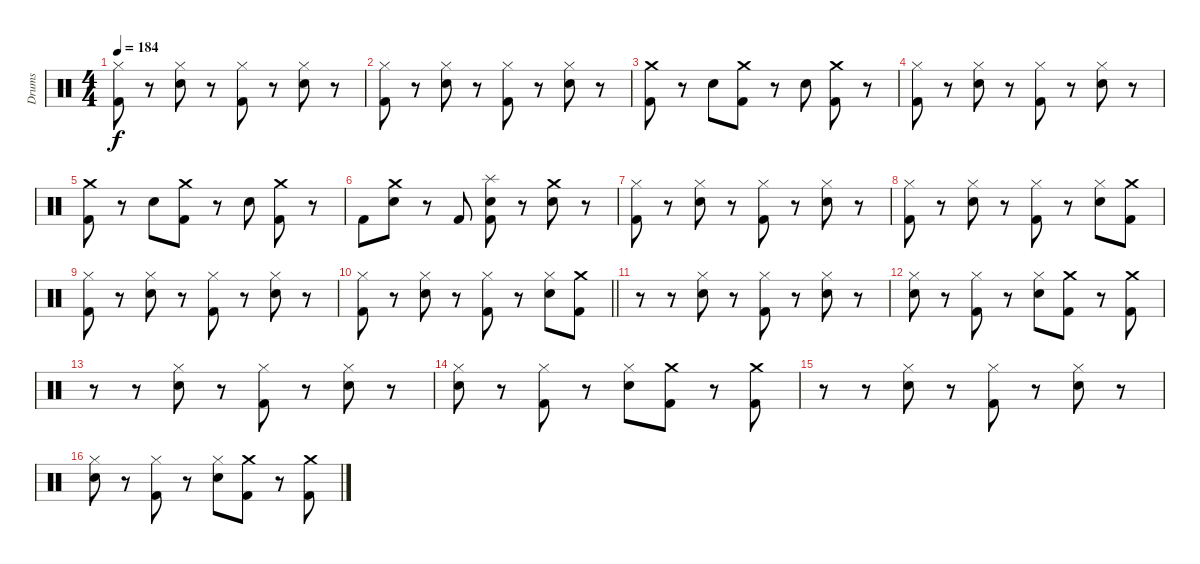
\track ("Drums" "Drums") {instrument percussion}
\staff {score}
\articulation defaults
\ts (4 4)
\tempo 184
\clef neutral
\ks c
("Hi-Hat (closed)" "Kick (hit) 2").8{dy f} r.8 ("Hi-Hat (closed)" "Snare (hit) 2").8 r.8 ("Hi-Hat (closed)" "Kick (hit) 2").8 r.8 ("Hi-Hat (closed)" "Snare (hit) 2").8 r.8 |
("Hi-Hat (closed)" "Kick (hit) 2").8 r.8 ("Hi-Hat (closed)" "Snare (hit) 2").8 r.8 ("Hi-Hat (closed)" "Kick (hit) 2").8 r.8 ("Hi-Hat (closed)" "Snare (hit) 2").8 r.8 |
("Crash medium (hit)" "Kick (hit) 2").8 r.8 "Snare (hit) 2".8 ("Crash medium (hit)" "Kick (hit) 2").8 r.8 "Snare (hit) 2".8 ("Crash medium (hit)" "Kick (hit) 2").8 r.8 |
("Hi-Hat (closed)" "Kick (hit) 2").8 r.8 ("Hi-Hat (closed)" "Snare (hit) 2").8 r.8 ("Hi-Hat (closed)" "Kick (hit) 2").8 r.8 ("Hi-Hat (closed)" "Snare (hit) 2").8 r.8 |
("Crash medium (hit)" "Kick (hit) 2").8 r.8 "Snare (hit) 2".8 ("Crash medium (hit)" "Kick (hit) 2").8 r.8 "Snare (hit) 2".8 ("Crash medium (hit)" "Kick (hit) 2").8 r.8 |
"Kick (hit) 2".8 ("Crash medium (hit)" "Snare (hit) 2").8 r.8 "Kick (hit) 2".8 ("Splash (hit)" "Snare (hit) 2" "Kick (hit) 2").8 r.8 ("Crash medium (hit)" "Snare (hit) 2").8 r.8 |
("Hi-Hat (closed)" "Kick (hit) 2").8 r.8 ("Hi-Hat (closed)" "Snare (hit) 2").8 r.8 ("Hi-Hat (closed)" "Kick (hit) 2").8 r.8 ("Hi-Hat (closed)" "Snare (hit) 2").8 r.8 |
("Hi-Hat (closed)" "Kick (hit) 2").8 r.8 ("Hi-Hat (closed)" "Snare (hit) 2").8 r.8 ("Hi-Hat (closed)" "Kick (hit) 2").8 r.8 ("Hi-Hat (closed)" "Snare (hit) 2").8 ("Crash medium (hit)" "Kick (hit) 2").8 |
("Hi-Hat (closed)" "Kick (hit) 2").8 r.8 ("Hi-Hat (closed)" "Snare (hit) 2").8 r.8 ("Hi-Hat (closed)" "Kick (hit) 2").8 r.8 ("Hi-Hat (closed)" "Snare (hit) 2").8 r.8 |
\barLineRight lightlight
("Hi-Hat (closed)" "Kick (hit) 2").8 r.8 ("Hi-Hat (closed)" "Snare (hit) 2").8 r.8 ("Hi-Hat (closed)" "Kick (hit) 2").8 r.8 ("Hi-Hat (closed)" "Snare (hit) 2").8 ("Crash medium (hit)" "Kick (hit) 2").8 |
r.8 r.8 ("Hi-Hat (closed)" "Snare (hit) 2").8 r.8 ("Hi-Hat (closed)" "Kick (hit) 2").8 r.8 ("Hi-Hat (closed)" "Snare (hit) 2").8 r.8 |
("Hi-Hat (closed)" "Snare (hit) 2").8 r.8 ("Hi-Hat (closed)" "Kick (hit) 2").8 r.8 ("Hi-Hat (closed)" "Snare (hit) 2").8 ("Crash medium (hit)" "Kick (hit) 2").8 r.8 ("Crash medium (hit)" "Kick (hit) 2").8 |
r.8 r.8 ("Hi-Hat (closed)" "Snare (hit) 2").8 r.8 ("Hi-Hat (closed)" "Kick (hit) 2").8 r.8 ("Hi-Hat (closed)" "Snare (hit) 2").8 r.8 |
("Hi-Hat (closed)" "Snare (hit) 2").8 r.8 ("Hi-Hat (closed)" "Kick (hit) 2").8 r.8 ("Hi-Hat (closed)" "Snare (hit) 2").8 ("Crash medium (hit)" "Kick (hit) 2").8 r.8 ("Crash medium (hit)" "Kick (hit) 2").8 |
r.8 r.8 ("Hi-Hat (closed)" "Snare (hit) 2").8 r.8 ("Hi-Hat (closed)" "Kick (hit) 2").8 r.8 ("Hi-Hat (closed)" "Snare (hit) 2").8 r.8 |
("Hi-Hat (closed)" "Snare (hit) 2").8 r.8 ("Hi-Hat (closed)" "Kick (hit) 2").8 r.8 ("Hi-Hat (closed)" "Snare (hit) 2").8 ("Crash medium (hit)" "Kick (hit) 2").8 r.8 ("Crash medium (hit)" "Kick (hit) 2").8
